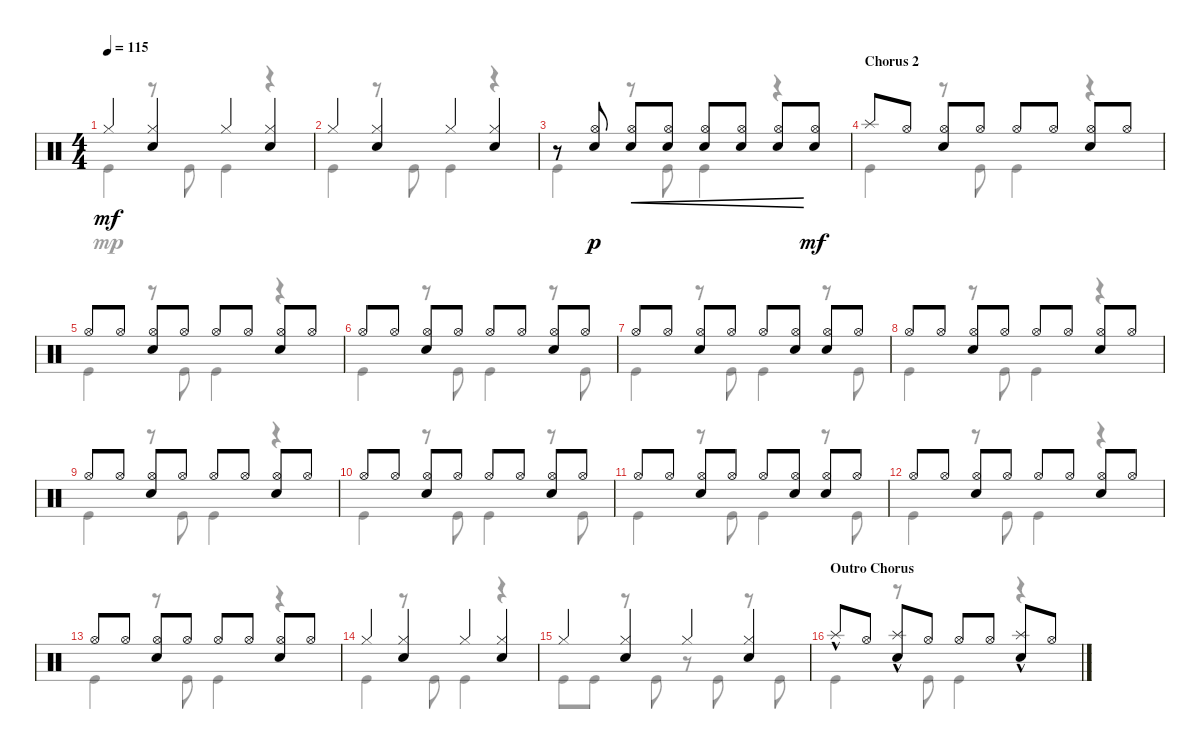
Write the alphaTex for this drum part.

\defaultSystemsLayout 4
\bracketExtendMode nobrackets
\singleTrackTrackNamePolicy hidden
\multiTrackTrackNamePolicy hidden
\firstSystemTrackNameOrientation horizontal
\otherSystemsTrackNameOrientation horizontal
\track ("Drums" "Drums") {instrument percussion}
\staff {score}
\articulation defaults
\voice
\ts (4 4)
\tempo 115
\clef neutral
\ks c "Hi-Hat (closed)".4{dy mf}
("Hi-Hat (closed)" "Snare (hit) 2").4 "Hi-Hat (closed)".4 ("Hi-Hat (closed)" "Snare (hit) 2").4 |
"Hi-Hat (closed)".4 ("Hi-Hat (closed)" "Snare (hit) 2").4 "Hi-Hat (closed)".4 ("Hi-Hat (closed)" "Snare (hit) 2").4 |
r.8 ("Snare (hit) 2" "Hi-Hat (open)").8{dy p} ("Snare (hit) 2" "Hi-Hat (open)").8{cre} ("Snare (hit) 2" "Hi-Hat (open)").8{cre} ("Snare (hit) 2" "Hi-Hat (open)").8{cre} ("Snare (hit) 2" "Hi-Hat (open)").8{cre} ("Snare (hit) 2" "Hi-Hat (open)").8{cre} ("Snare (hit) 2" "Hi-Hat (open)").8{dy mf} |
\section ("" "Chorus 2")
"Splash (hit)".8 "Hi-Hat (open)".8 ("Hi-Hat (open)" "Snare (hit) 2").8 "Hi-Hat (open)".8 "Hi-Hat (open)".8 "Hi-Hat (open)".8 ("Hi-Hat (open)" "Snare (hit) 2").8 "Hi-Hat (open)".8 |
"Hi-Hat (open)".8 "Hi-Hat (open)".8 ("Hi-Hat (open)" "Snare (hit) 2").8 "Hi-Hat (open)".8 "Hi-Hat (open)".8 "Hi-Hat (open)".8 ("Hi-Hat (open)" "Snare (hit) 2").8 "Hi-Hat (open)".8 |
"Hi-Hat (open)".8 "Hi-Hat (open)".8 ("Hi-Hat (open)" "Snare (hit) 2").8 "Hi-Hat (open)".8 "Hi-Hat (open)".8 "Hi-Hat (open)".8 ("Hi-Hat (open)" "Snare (hit) 2").8 "Hi-Hat (open)".8 |
"Hi-Hat (open)".8 "Hi-Hat (open)".8 ("Hi-Hat (open)" "Snare (hit) 2").8 "Hi-Hat (open)".8 "Hi-Hat (open)".8 ("Hi-Hat (open)" "Snare (hit) 2").8 ("Hi-Hat (open)" "Snare (hit) 2").8 "Hi-Hat (open)".8 |
"Hi-Hat (open)".8 "Hi-Hat (open)".8 ("Hi-Hat (open)" "Snare (hit) 2").8 "Hi-Hat (open)".8 "Hi-Hat (open)".8 "Hi-Hat (open)".8 ("Hi-Hat (open)" "Snare (hit) 2").8 "Hi-Hat (open)".8 |
"Hi-Hat (open)".8 "Hi-Hat (open)".8 ("Hi-Hat (open)" "Snare (hit) 2").8 "Hi-Hat (open)".8 "Hi-Hat (open)".8 "Hi-Hat (open)".8 ("Hi-Hat (open)" "Snare (hit) 2").8 "Hi-Hat (open)".8 |
"Hi-Hat (open)".8 "Hi-Hat (open)".8 ("Hi-Hat (open)" "Snare (hit) 2").8 "Hi-Hat (open)".8 "Hi-Hat (open)".8 "Hi-Hat (open)".8 ("Hi-Hat (open)" "Snare (hit) 2").8 "Hi-Hat (open)".8 |
"Hi-Hat (open)".8 "Hi-Hat (open)".8 ("Hi-Hat (open)" "Snare (hit) 2").8 "Hi-Hat (open)".8 "Hi-Hat (open)".8 ("Hi-Hat (open)" "Snare (hit) 2").8 ("Hi-Hat (open)" "Snare (hit) 2").8 "Hi-Hat (open)".8 |
"Hi-Hat (open)".8 "Hi-Hat (open)".8 ("Hi-Hat (open)" "Snare (hit) 2").8 "Hi-Hat (open)".8 "Hi-Hat (open)".8 "Hi-Hat (open)".8 ("Hi-Hat (open)" "Snare (hit) 2").8 "Hi-Hat (open)".8 |
"Hi-Hat (open)".8 "Hi-Hat (open)".8 ("Hi-Hat (open)" "Snare (hit) 2").8 "Hi-Hat (open)".8 "Hi-Hat (open)".8 "Hi-Hat (open)".8 ("Hi-Hat (open)" "Snare (hit) 2").8 "Hi-Hat (open)".8 |
"Hi-Hat (closed)".4 ("Hi-Hat (closed)" "Snare (hit) 2").4 "Hi-Hat (closed)".4 ("Hi-Hat (closed)" "Snare (hit) 2").4 |
"Hi-Hat (closed)".4 ("Hi-Hat (closed)" "Snare (hit) 2").4 "Hi-Hat (closed)".4 ("Hi-Hat (closed)" "Snare (hit) 2").4 |
\section ("" "Outro Chorus")
"Splash (hit)"{hac}.8 "Hi-Hat (open)".8 ("Snare (hit) 2" "Splash (hit)"{hac}).8 "Hi-Hat (open)".8 "Hi-Hat (open)".8 "Hi-Hat (open)".8 ("Snare (hit) 2" "Splash (hit)"{hac}).8 "Hi-Hat (open)".8
\voice
\clef neutral
\ottava regular
\simile none
\ks c "Kick (hit)".4{dy mp}
r.8 "Kick (hit)".8 "Kick (hit)".4 r.4 |
"Kick (hit)".4 r.8 "Kick (hit)".8 "Kick (hit)".4 r.4 |
"Kick (hit)".4 r.8 "Kick (hit)".8 "Kick (hit)".4 r.4 |
"Kick (hit)".4 r.8 "Kick (hit)".8 "Kick (hit)".4 r.4 |
"Kick (hit)".4 r.8 "Kick (hit)".8 "Kick (hit)".4 r.4 |
"Kick (hit)".4 r.8 "Kick (hit)".8 "Kick (hit)".4 r.8 "Kick (hit)".8 |
"Kick (hit)".4 r.8 "Kick (hit)".8 "Kick (hit)".4 r.8 "Kick (hit)".8 |
"Kick (hit)".4 r.8 "Kick (hit)".8 "Kick (hit)".4 r.4 |
"Kick (hit)".4 r.8 "Kick (hit)".8 "Kick (hit)".4 r.4 |
"Kick (hit)".4 r.8 "Kick (hit)".8 "Kick (hit)".4 r.8 "Kick (hit)".8 |
"Kick (hit)".4 r.8 "Kick (hit)".8 "Kick (hit)".4 r.8 "Kick (hit)".8 |
"Kick (hit)".4 r.8 "Kick (hit)".8 "Kick (hit)".4 r.4 |
"Kick (hit)".4 r.8 "Kick (hit)".8 "Kick (hit)".4 r.4 |
"Kick (hit)".4 r.8 "Kick (hit)".8 "Kick (hit)".4 r.4 |
"Kick (hit)".8 "Kick (hit)".8 r.8 "Kick (hit)".8 r.8 "Kick (hit)".8 r.8 "Kick (hit)".8 |
"Kick (hit)".4 r.8 "Kick (hit)".8 "Kick (hit)".4 r.4
